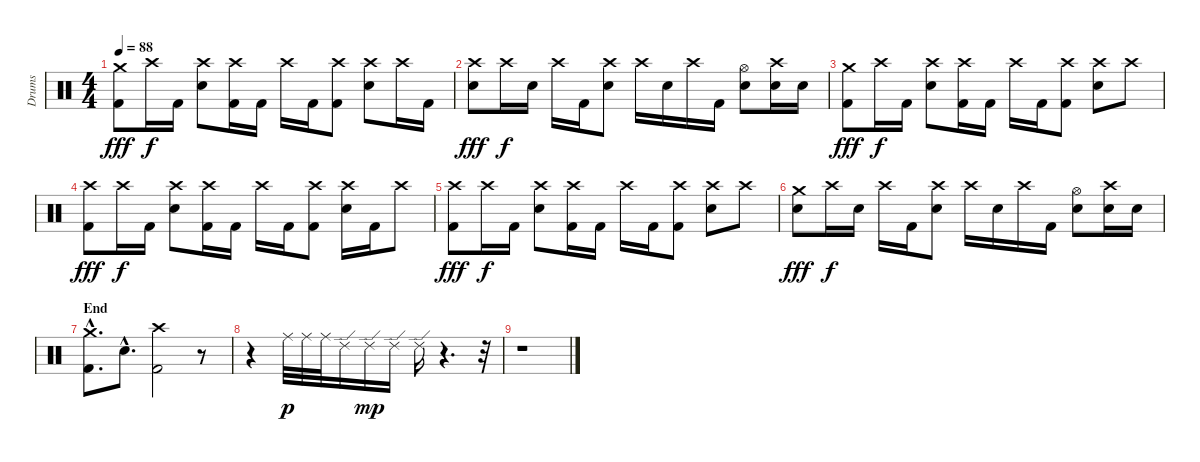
\track ("Drums" "Drums") {instrument percussion}
\staff {score}
\articulation defaults
\ts (4 4)
\tempo 88
\clef neutral
\ks c
("Crash medium (hit)" "Kick (hit) 2").8{dy fff} "Crash high (hit)".16{dy f} "Kick (hit) 2".16 ("Crash high (hit)" "Electric Snare (hit)").8 ("Crash high (hit)" "Kick (hit) 2").16 "Kick (hit) 2".16 "Crash high (hit)".16 "Kick (hit) 2".16 ("Crash high (hit)" "Kick (hit) 2").8 ("Crash high (hit)" "Electric Snare (hit)").8 "Crash high (hit)".16 "Kick (hit) 2".16 |
("Crash high (hit)" "Electric Snare (hit)").8{dy fff} "Crash high (hit)".16{dy f} "Electric Snare (hit)".16 "Crash high (hit)".16 "Kick (hit) 2".16 ("Crash high (hit)" "Electric Snare (hit)").8 "Crash high (hit)".16 "Electric Snare (hit)".16 "Crash high (hit)".16 "Kick (hit) 2".16 ("Hi-Hat (open)" "Electric Snare (hit)").8 ("Crash high (hit)" "Electric Snare (hit)").16 "Electric Snare (hit)".16 |
("Crash medium (hit)" "Kick (hit) 2").8{dy fff} "Crash high (hit)".16{dy f} "Kick (hit) 2".16 ("Crash high (hit)" "Electric Snare (hit)").8 ("Crash high (hit)" "Kick (hit) 2").16 "Kick (hit) 2".16 "Crash high (hit)".16 "Kick (hit) 2".16 ("Crash high (hit)" "Kick (hit) 2").8 ("Crash high (hit)" "Electric Snare (hit)").8 "Crash high (hit)".8 |
("Crash high (hit)" "Kick (hit) 2").8{dy fff} "Crash high (hit)".16{dy f} "Kick (hit) 2".16 ("Crash high (hit)" "Electric Snare (hit)").8 ("Crash high (hit)" "Kick (hit) 2").16 "Kick (hit) 2".16 "Crash high (hit)".16 "Kick (hit) 2".16 ("Crash high (hit)" "Kick (hit) 2").8 ("Crash high (hit)" "Electric Snare (hit)").16 "Kick (hit) 2".16 "Crash high (hit)".8 |
("Crash high (hit)" "Kick (hit) 2").8{dy fff} "Crash high (hit)".16{dy f} "Kick (hit) 2".16 ("Crash high (hit)" "Electric Snare (hit)").8 ("Crash high (hit)" "Kick (hit) 2").16 "Kick (hit) 2".16 "Crash high (hit)".16 "Kick (hit) 2".16 ("Crash high (hit)" "Kick (hit) 2").8 ("Crash high (hit)" "Electric Snare (hit)").8 "Crash high (hit)".8 |
("Crash medium (hit)" "Electric Snare (hit)").8{dy fff} "Crash high (hit)".16{dy f} "Electric Snare (hit)".16 "Crash high (hit)".16 "Kick (hit) 2".16 ("Crash high (hit)" "Electric Snare (hit)").8 "Crash high (hit)".16 "Electric Snare (hit)".16 "Crash high (hit)".16 "Kick (hit) 2".16 ("Hi-Hat (open)" "Electric Snare (hit)").8 ("Crash high (hit)" "Electric Snare (hit)").16 "Electric Snare (hit)".16 |
\section ("" "End")
("Crash medium (hit)"{hac} "Kick (hit) 2"{hac}).8{d} "Electric Snare (hit)"{hac}.8{d} ("Crash high (hit)" "Kick (hit) 2").2 r.8 |
r.4 "Ride (middle)".32{dy p} "Ride (middle)".32 "Ride (middle)".32 "Ride (edge) 2".16 "Ride (edge) 2".16{dy mp} "Ride (edge) 2".16 "Ride (edge) 2".16 r.4{d} r.32 |
r.1
